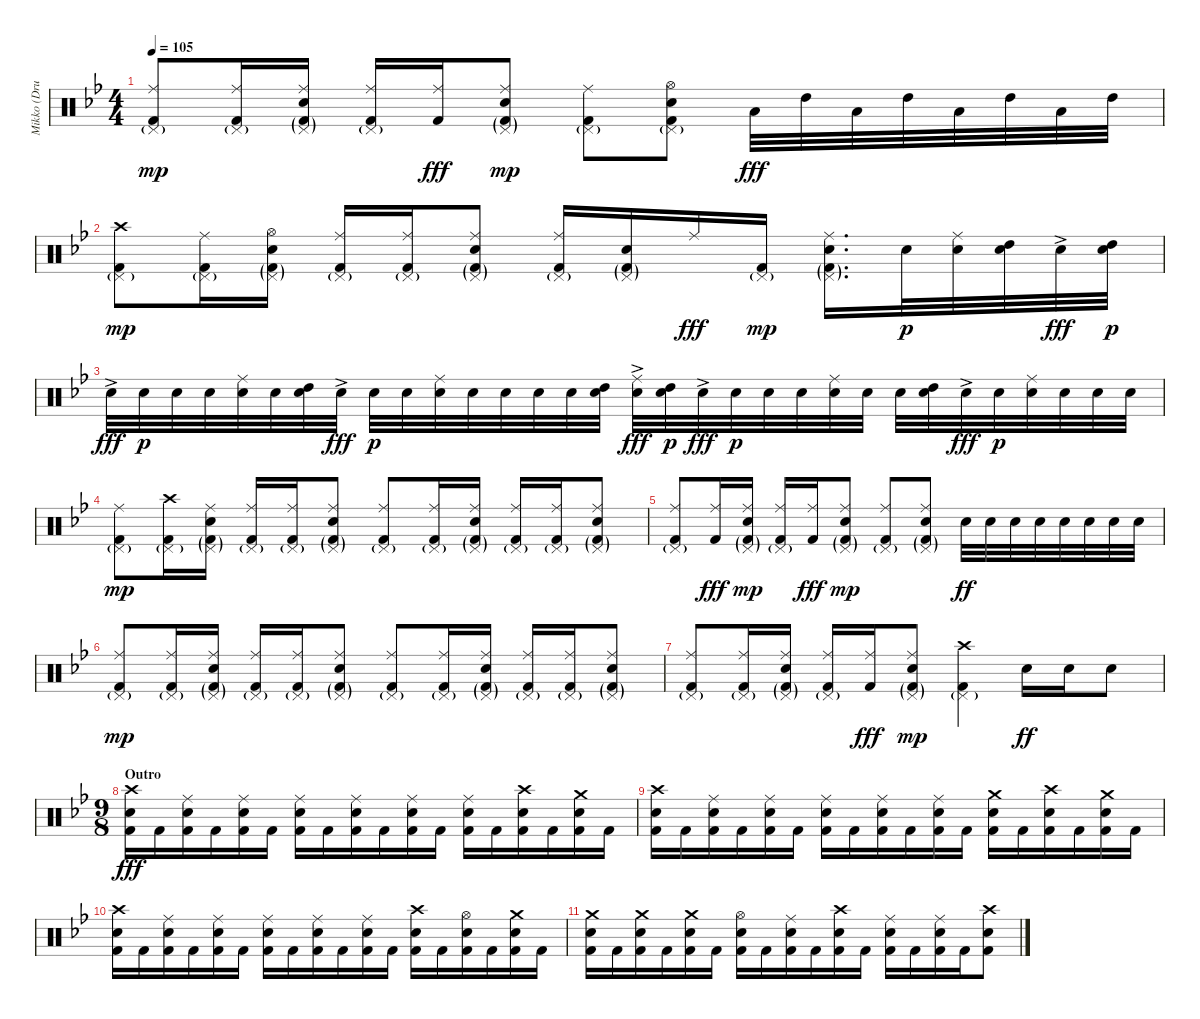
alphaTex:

\track ("Mikko (Drums)" "Mikko (Dru") {instrument percussion}
\staff {score}
\articulation defaults
\ts (4 4)
\tempo 105
\clef neutral
\ks bb
("Ride (middle)" "Kick (hit) 2" "Pedal Hi-Hat (hit)"{g}).8{dy mp} ("Ride (middle)" "Kick (hit) 2" "Pedal Hi-Hat (hit)"{g}).16 ("Ride (middle)" "Electric Snare (hit)" "Pedal Hi-Hat (hit)"{g} "Kick (hit) 2"{g}).16 ("Ride (middle)" "Kick (hit) 2" "Pedal Hi-Hat (hit)"{g}).16 ("Ride (middle)" "Kick (hit) 2").16{dy fff} ("Ride (middle)" "Electric Snare (hit)" "Pedal Hi-Hat (hit)"{g} "Kick (hit) 2"{g}).8{dy mp} ("Ride (middle)" "Kick (hit) 2" "Pedal Hi-Hat (hit)"{g}).8 ("Hi-Hat (open)" "Electric Snare (hit)" "Kick (hit) 2" "Pedal Hi-Hat (hit)"{g}).8 "Low Tom (hit)".32{dy fff} "High Tom (hit)".32 "Low Tom (hit)".32 "High Tom (hit)".32 "Low Tom (hit)".32 "High Tom (hit)".32 "Low Tom (hit)".32 "High Tom (hit)".32 |
("Crash high (hit)" "Kick (hit) 2" "Pedal Hi-Hat (hit)"{g}).8{dy mp} ("Ride (middle)" "Kick (hit) 2" "Pedal Hi-Hat (hit)"{g}).16 ("Hi-Hat (open)" "Electric Snare (hit)" "Pedal Hi-Hat (hit)"{g} "Kick (hit) 2"{g}).16 ("Ride (middle)" "Kick (hit) 2" "Pedal Hi-Hat (hit)"{g}).16 ("Ride (middle)" "Kick (hit) 2" "Pedal Hi-Hat (hit)"{g}).16 ("Ride (middle)" "Electric Snare (hit)" "Pedal Hi-Hat (hit)"{g} "Kick (hit) 2"{g}).8 ("Ride (middle)" "Kick (hit) 2" "Pedal Hi-Hat (hit)"{g}).16 ("Electric Snare (hit)" "Pedal Hi-Hat (hit)"{g} "Kick (hit) 2"{g}).16 "Ride (middle)".16{dy fff} ("Kick (hit) 2" "Pedal Hi-Hat (hit)"{g}).16{dy mp} ("Ride (middle)" "Electric Snare (hit)" "Pedal Hi-Hat (hit)"{g} "Kick (hit) 2"{g}).16{d} "Electric Snare (hit)".32{dy p} ("Ride (middle)" "Electric Snare (hit)").32 ("High Tom (hit)" "Electric Snare (hit)").32 "Electric Snare (hit)"{ac}.32{dy fff} ("High Tom (hit)" "Electric Snare (hit)").32{dy p} |
"Electric Snare (hit)"{ac}.32{dy fff} "Electric Snare (hit)".32{dy p} "Electric Snare (hit)".32 "Electric Snare (hit)".32 ("Ride (middle)" "Electric Snare (hit)").32 "Electric Snare (hit)".32 ("High Tom (hit)" "Electric Snare (hit)").32 "Electric Snare (hit)"{ac}.32{dy fff} "Electric Snare (hit)".32{dy p} "Electric Snare (hit)".32 ("Ride (middle)" "Electric Snare (hit)").32 "Electric Snare (hit)".32 "Electric Snare (hit)".32 "Electric Snare (hit)".32 "Electric Snare (hit)".32 ("High Tom (hit)" "Electric Snare (hit)").32 ("Ride (middle)" "Electric Snare (hit)"{ac}).32{dy fff} ("High Tom (hit)" "Electric Snare (hit)").32{dy p} "Electric Snare (hit)"{ac}.32{dy fff} "Electric Snare (hit)".32{dy p} "Electric Snare (hit)".32 "Electric Snare (hit)".32 ("Ride (middle)" "Electric Snare (hit)").32 "Electric Snare (hit)".32 "Electric Snare (hit)".32 ("High Tom (hit)" "Electric Snare (hit)").32 "Electric Snare (hit)"{ac}.32{dy fff} "Electric Snare (hit)".32{dy p} ("Ride (middle)" "Electric Snare (hit)").32 "Electric Snare (hit)".32 "Electric Snare (hit)".32 "Electric Snare (hit)".32 |
("Ride (middle)" "Kick (hit) 2" "Pedal Hi-Hat (hit)"{g}).8{dy mp} ("Crash high (hit)" "Kick (hit) 2" "Pedal Hi-Hat (hit)"{g}).16 ("Ride (middle)" "Electric Snare (hit)" "Pedal Hi-Hat (hit)"{g} "Kick (hit) 2"{g}).16 ("Ride (middle)" "Kick (hit) 2" "Pedal Hi-Hat (hit)"{g}).16 ("Ride (middle)" "Kick (hit) 2" "Pedal Hi-Hat (hit)"{g}).16 ("Ride (middle)" "Electric Snare (hit)" "Pedal Hi-Hat (hit)"{g} "Kick (hit) 2"{g}).8 ("Ride (middle)" "Kick (hit) 2" "Pedal Hi-Hat (hit)"{g}).8 ("Ride (middle)" "Kick (hit) 2" "Pedal Hi-Hat (hit)"{g}).16 ("Ride (middle)" "Electric Snare (hit)" "Pedal Hi-Hat (hit)"{g} "Kick (hit) 2"{g}).16 ("Ride (middle)" "Kick (hit) 2" "Pedal Hi-Hat (hit)"{g}).16 ("Ride (middle)" "Kick (hit) 2" "Pedal Hi-Hat (hit)"{g}).16 ("Ride (middle)" "Electric Snare (hit)" "Pedal Hi-Hat (hit)"{g} "Kick (hit) 2"{g}).8 |
("Ride (middle)" "Kick (hit) 2" "Pedal Hi-Hat (hit)"{g}).8 ("Ride (middle)" "Kick (hit) 2").16{dy fff} ("Ride (middle)" "Electric Snare (hit)" "Kick (hit) 2"{g} "Pedal Hi-Hat (hit)"{g}).16{dy mp} ("Ride (middle)" "Kick (hit) 2" "Pedal Hi-Hat (hit)"{g}).16 ("Ride (middle)" "Kick (hit) 2").16{dy fff} ("Ride (middle)" "Electric Snare (hit)" "Kick (hit) 2"{g} "Pedal Hi-Hat (hit)"{g}).8{dy mp} ("Ride (middle)" "Kick (hit) 2" "Pedal Hi-Hat (hit)"{g}).8 ("Ride (middle)" "Electric Snare (hit)" "Pedal Hi-Hat (hit)"{g} "Kick (hit) 2"{g}).8 "Electric Snare (hit)".32{dy ff} "Electric Snare (hit)".32 "Electric Snare (hit)".32 "Electric Snare (hit)".32 "Electric Snare (hit)".32 "Electric Snare (hit)".32 "Electric Snare (hit)".32 "Electric Snare (hit)".32 |
("Ride (middle)" "Kick (hit) 2" "Pedal Hi-Hat (hit)"{g}).8{dy mp} ("Ride (middle)" "Kick (hit) 2" "Pedal Hi-Hat (hit)"{g}).16 ("Ride (middle)" "Electric Snare (hit)" "Pedal Hi-Hat (hit)"{g} "Kick (hit) 2"{g}).16 ("Ride (middle)" "Kick (hit) 2" "Pedal Hi-Hat (hit)"{g}).16 ("Ride (middle)" "Kick (hit) 2" "Pedal Hi-Hat (hit)"{g}).16 ("Ride (middle)" "Electric Snare (hit)" "Pedal Hi-Hat (hit)"{g} "Kick (hit) 2"{g}).8 ("Ride (middle)" "Kick (hit) 2" "Pedal Hi-Hat (hit)"{g}).8 ("Ride (middle)" "Kick (hit) 2" "Pedal Hi-Hat (hit)"{g}).16 ("Ride (middle)" "Electric Snare (hit)" "Pedal Hi-Hat (hit)"{g} "Kick (hit) 2"{g}).16 ("Ride (middle)" "Kick (hit) 2" "Pedal Hi-Hat (hit)"{g}).16 ("Ride (middle)" "Kick (hit) 2" "Pedal Hi-Hat (hit)"{g}).16 ("Ride (middle)" "Electric Snare (hit)" "Pedal Hi-Hat (hit)"{g} "Kick (hit) 2"{g}).8 |
("Ride (middle)" "Kick (hit) 2" "Pedal Hi-Hat (hit)"{g}).8 ("Ride (middle)" "Kick (hit) 2" "Pedal Hi-Hat (hit)"{g}).16 ("Ride (middle)" "Electric Snare (hit)" "Pedal Hi-Hat (hit)"{g} "Kick (hit) 2"{g}).16 ("Ride (middle)" "Kick (hit) 2" "Pedal Hi-Hat (hit)"{g}).16 ("Ride (middle)" "Kick (hit) 2").16{dy fff} ("Ride (middle)" "Electric Snare (hit)" "Pedal Hi-Hat (hit)"{g} "Kick (hit) 2"{g}).8{dy mp} ("Crash high (hit)" "Kick (hit) 2" "Pedal Hi-Hat (hit)"{g}).4 "Electric Snare (hit)".16{dy ff} "Electric Snare (hit)".16 "Electric Snare (hit)".8 |
\ts (9 8)
\section ("" "Outro")
("Crash high (hit)" "Electric Snare (hit)" "Kick (hit) 2").16{dy fff} "Kick (hit) 2".16 ("Ride (middle)" "Electric Snare (hit)" "Kick (hit) 2").16 "Kick (hit) 2".16 ("Ride (middle)" "Electric Snare (hit)" "Kick (hit) 2").16 "Kick (hit) 2".16 ("Ride (middle)" "Electric Snare (hit)" "Kick (hit) 2").16 "Kick (hit) 2".16 ("Ride (middle)" "Electric Snare (hit)" "Kick (hit) 2").16 "Kick (hit) 2".16 ("Ride (middle)" "Electric Snare (hit)" "Kick (hit) 2").16 "Kick (hit) 2".16 ("Ride (middle)" "Electric Snare (hit)" "Kick (hit) 2").16 "Kick (hit) 2".16 ("Crash high (hit)" "Electric Snare (hit)" "Kick (hit) 2").16 "Kick (hit) 2".16 ("Crash medium (hit)" "Electric Snare (hit)" "Kick (hit) 2").16 "Kick (hit) 2".16 |
("Crash high (hit)" "Electric Snare (hit)" "Kick (hit) 2").16 "Kick (hit) 2".16 ("Ride (middle)" "Electric Snare (hit)" "Kick (hit) 2").16 "Kick (hit) 2".16 ("Ride (middle)" "Electric Snare (hit)" "Kick (hit) 2").16 "Kick (hit) 2".16 ("Ride (middle)" "Electric Snare (hit)" "Kick (hit) 2").16 "Kick (hit) 2".16 ("Ride (middle)" "Electric Snare (hit)" "Kick (hit) 2").16 "Kick (hit) 2".16 ("Ride (middle)" "Electric Snare (hit)" "Kick (hit) 2").16 "Kick (hit) 2".16 ("Crash medium (hit)" "Electric Snare (hit)" "Kick (hit) 2").16 "Kick (hit) 2".16 ("Crash high (hit)" "Electric Snare (hit)" "Kick (hit) 2").16 "Kick (hit) 2".16 ("Crash medium (hit)" "Electric Snare (hit)" "Kick (hit) 2").16 "Kick (hit) 2".16 |
("Crash high (hit)" "Electric Snare (hit)" "Kick (hit) 2").16 "Kick (hit) 2".16 ("Ride (middle)" "Electric Snare (hit)" "Kick (hit) 2").16 "Kick (hit) 2".16 ("Ride (middle)" "Electric Snare (hit)" "Kick (hit) 2").16 "Kick (hit) 2".16 ("Ride (middle)" "Electric Snare (hit)" "Kick (hit) 2").16 "Kick (hit) 2".16 ("Ride (middle)" "Electric Snare (hit)" "Kick (hit) 2").16 "Kick (hit) 2".16 ("Ride (middle)" "Electric Snare (hit)" "Kick (hit) 2").16 "Kick (hit) 2".16 ("Crash high (hit)" "Electric Snare (hit)" "Kick (hit) 2").16 "Kick (hit) 2".16 ("Hi-Hat (open)" "Electric Snare (hit)" "Kick (hit) 2").16 "Kick (hit) 2".16 ("Crash medium (hit)" "Electric Snare (hit)" "Kick (hit) 2").16 "Kick (hit) 2".16 |
("Crash medium (hit)" "Electric Snare (hit)" "Kick (hit) 2").16 "Kick (hit) 2".16 ("Crash medium (hit)" "Electric Snare (hit)" "Kick (hit) 2").16 "Kick (hit) 2".16 ("Crash medium (hit)" "Electric Snare (hit)" "Kick (hit) 2").16 "Kick (hit) 2".16 ("Hi-Hat (open)" "Electric Snare (hit)" "Kick (hit) 2").16 "Kick (hit) 2".16 ("Ride (middle)" "Electric Snare (hit)" "Kick (hit) 2").16 "Kick (hit) 2".16 ("Crash high (hit)" "Electric Snare (hit)" "Kick (hit) 2").16 "Kick (hit) 2".16 ("Ride (middle)" "Electric Snare (hit)" "Kick (hit) 2").16 "Kick (hit) 2".16 ("Ride (middle)" "Electric Snare (hit)" "Kick (hit) 2").16 "Kick (hit) 2".16 ("Crash high (hit)" "Electric Snare (hit)" "Kick (hit) 2").8
